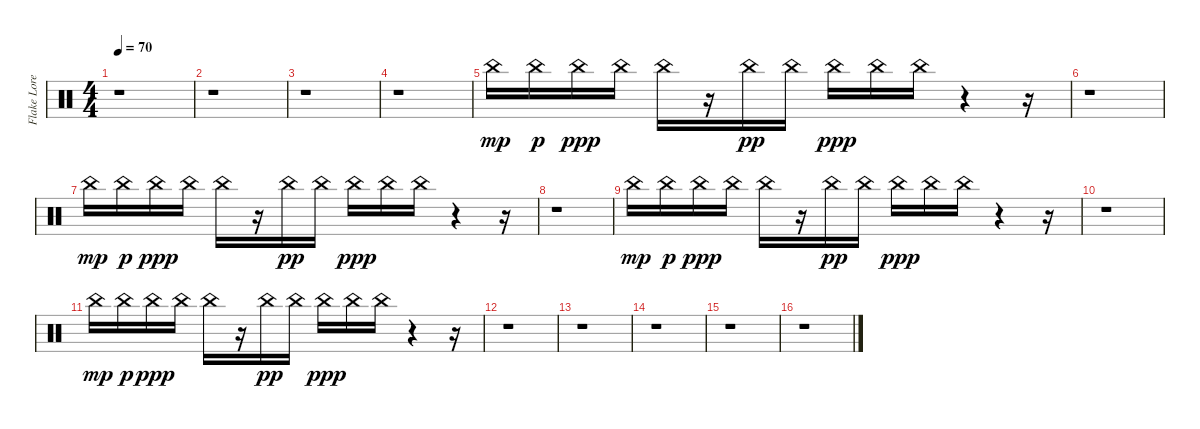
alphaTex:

\track ("Flake Lorenz" "Flake Lore") {instrument percussion}
\staff {score}
\articulation defaults
\ts (4 4)
\tempo 70
\clef neutral
\ks c
r.1{dy ppp} |
r.1 |
r.1 |
r.1 |
"China (hit)".16{dy mp} "China (hit)".16{dy p} "China (hit)".16{dy ppp} "China (hit)".16 "China (hit)".16 r.16 "China (hit)".16{dy pp} "China (hit)".16 "China (hit)".16{dy ppp} "China (hit)".16 "China (hit)".16 r.4 r.16 |
r.1 |
"China (hit)".16{dy mp} "China (hit)".16{dy p} "China (hit)".16{dy ppp} "China (hit)".16 "China (hit)".16 r.16 "China (hit)".16{dy pp} "China (hit)".16 "China (hit)".16{dy ppp} "China (hit)".16 "China (hit)".16 r.4 r.16 |
r.1 |
"China (hit)".16{dy mp} "China (hit)".16{dy p} "China (hit)".16{dy ppp} "China (hit)".16 "China (hit)".16 r.16 "China (hit)".16{dy pp} "China (hit)".16 "China (hit)".16{dy ppp} "China (hit)".16 "China (hit)".16 r.4 r.16 |
r.1 |
"China (hit)".16{dy mp} "China (hit)".16{dy p} "China (hit)".16{dy ppp} "China (hit)".16 "China (hit)".16 r.16 "China (hit)".16{dy pp} "China (hit)".16 "China (hit)".16{dy ppp} "China (hit)".16 "China (hit)".16 r.4 r.16 |
r.1 |
r.1 |
r.1 |
r.1 |
r.1
